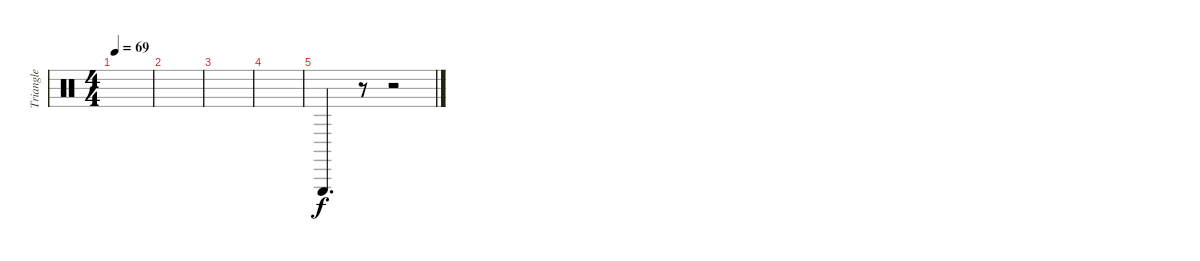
\track ("Triangle" "Triangle") {instrument percussion}
\staff {score}
\articulation defaults
\ts (4 4)
\tempo 69
\clef neutral
\ks c
|
|
|
|
"Triangle (hit)".4{d} r.8 r.2
